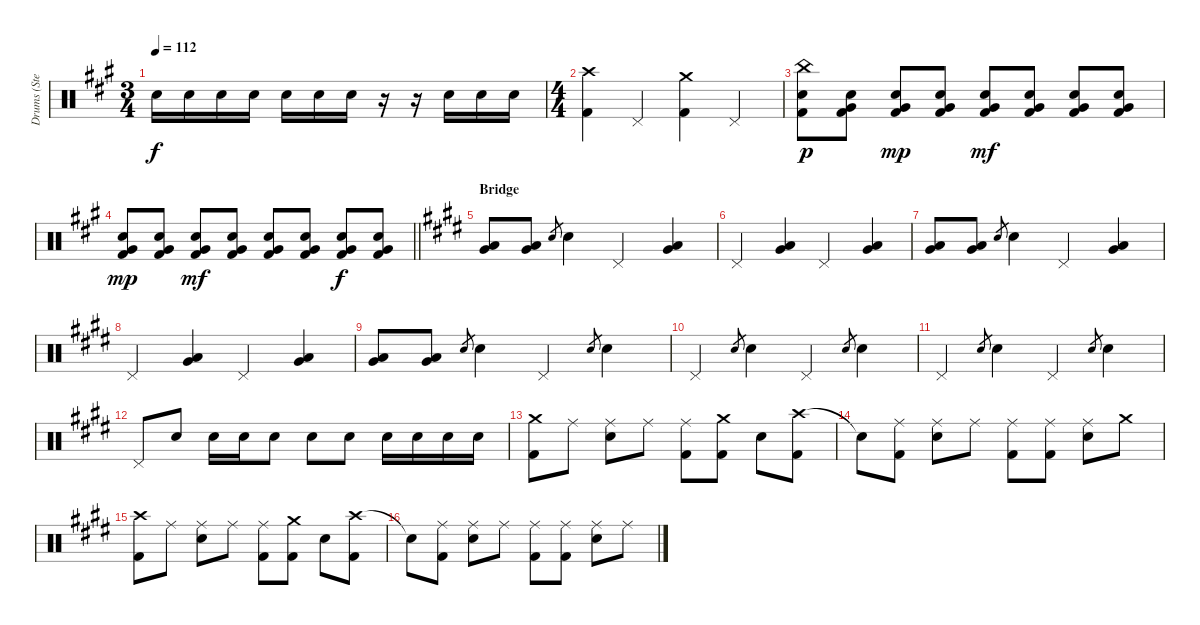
\track ("Drums (Steven)" "Drums (Ste") {instrument percussion}
\staff {score}
\articulation defaults
\ts (3 4)
\tempo 112
\clef neutral
\ks f#minor "Snare (hit) 2".16{dy f} "Snare (hit) 2".16 "Snare (hit) 2".16 "Snare (hit) 2".16 "Snare (hit) 2".16 "Snare (hit) 2".16 "Snare (hit) 2".16
r.16 r.16 "Snare (hit) 2".16 "Snare (hit) 2".16 "Snare (hit) 2".16 |
\ts (4 4)
("Crash high (hit)" "Kick (hit) 2").4 "Pedal Hi-Hat (hit)".4 ("Crash medium (hit)" "Kick (hit) 2").4 "Pedal Hi-Hat (hit)".4 |
("China (hit)" "Snare (hit) 2" "Kick (hit) 2").8{dy p} ("Snare (hit) 2" "Very Low Tom (hit)" "Kick (hit) 2").8 ("Snare (hit) 2" "Very Low Tom (hit)" "Kick (hit) 2").8{dy mp} ("Snare (hit) 2" "Very Low Tom (hit)" "Kick (hit) 2").8 ("Snare (hit) 2" "Very Low Tom (hit)" "Kick (hit) 2").8{dy mf} ("Snare (hit) 2" "Very Low Tom (hit)" "Kick (hit) 2").8 ("Snare (hit) 2" "Very Low Tom (hit)" "Kick (hit) 2").8 ("Snare (hit) 2" "Very Low Tom (hit)" "Kick (hit) 2").8 |
\barLineRight lightlight
("Snare (hit) 2" "Very Low Tom (hit)" "Kick (hit) 2").8{dy mp} ("Snare (hit) 2" "Very Low Tom (hit)" "Kick (hit) 2").8 ("Snare (hit) 2" "Very Low Tom (hit)" "Kick (hit) 2").8{dy mf} ("Snare (hit) 2" "Very Low Tom (hit)" "Kick (hit) 2").8 ("Snare (hit) 2" "Very Low Tom (hit)" "Kick (hit) 2").8 ("Snare (hit) 2" "Very Low Tom (hit)" "Kick (hit) 2").8 ("Snare (hit) 2" "Very Low Tom (hit)" "Kick (hit) 2").8{dy f} ("Snare (hit) 2" "Very Low Tom (hit)" "Kick (hit) 2").8 |
\section ("" "Bridge")
\ks e
("Low Floor Tom (hit)" "Very Low Tom (hit)").8 ("Low Floor Tom (hit)" "Very Low Tom (hit)").8 "Snare (hit) 2".8{gr} "Snare (hit) 2".4 "Pedal Hi-Hat (hit)".4 ("Low Floor Tom (hit)" "Very Low Tom (hit)").4 |
"Pedal Hi-Hat (hit)".4 ("Low Floor Tom (hit)" "Very Low Tom (hit)").4 "Pedal Hi-Hat (hit)".4 ("Low Floor Tom (hit)" "Very Low Tom (hit)").4 |
("Low Floor Tom (hit)" "Very Low Tom (hit)").8 ("Low Floor Tom (hit)" "Very Low Tom (hit)").8 "Snare (hit) 2".8{gr} "Snare (hit) 2".4 "Pedal Hi-Hat (hit)".4 ("Low Floor Tom (hit)" "Very Low Tom (hit)").4 |
"Pedal Hi-Hat (hit)".4 ("Low Floor Tom (hit)" "Very Low Tom (hit)").4 "Pedal Hi-Hat (hit)".4 ("Low Floor Tom (hit)" "Very Low Tom (hit)").4 |
("Low Floor Tom (hit)" "Very Low Tom (hit)").8 ("Low Floor Tom (hit)" "Very Low Tom (hit)").8 "Snare (hit) 2".8{gr} "Snare (hit) 2".4 "Pedal Hi-Hat (hit)".4 "Snare (hit) 2".8{gr} "Snare (hit) 2".4 |
"Pedal Hi-Hat (hit)".4 "Snare (hit) 2".8{gr} "Snare (hit) 2".4 "Pedal Hi-Hat (hit)".4 "Snare (hit) 2".8{gr} "Snare (hit) 2".4 |
"Pedal Hi-Hat (hit)".4 "Snare (hit) 2".8{gr} "Snare (hit) 2".4 "Pedal Hi-Hat (hit)".4 "Snare (hit) 2".8{gr} "Snare (hit) 2".4 |
"Pedal Hi-Hat (hit)".8 "Snare (hit) 2".8 "Snare (hit) 2".16 "Snare (hit) 2".16 "Snare (hit) 2".8 "Snare (hit) 2".8 "Snare (hit) 2".8 "Snare (hit) 2".16 "Snare (hit) 2".16 "Snare (hit) 2".16 "Snare (hit) 2".16 |
("Crash medium (hit)" "Kick (hit) 2").8 "Ride (middle)".8 ("Ride (middle)" "Snare (hit) 2").8 "Ride (middle)".8 ("Ride (middle)" "Kick (hit) 2").8 ("Crash medium (hit)" "Kick (hit) 2").8 "Snare (hit) 2".8 ("Crash high (hit)" "Kick (hit) 2").8 |
"Snare (hit)"{t}.8 ("Ride (middle)" "Kick (hit) 2").8 ("Ride (middle)" "Snare (hit) 2").8 "Ride (middle)".8 ("Ride (middle)" "Kick (hit) 2").8 ("Ride (middle)" "Kick (hit) 2").8 ("Ride (middle)" "Snare (hit) 2").8 "Crash medium (hit)".8 |
("Crash high (hit)" "Kick (hit) 2").8 "Ride (middle)".8 ("Ride (middle)" "Snare (hit) 2").8 "Ride (middle)".8 ("Ride (middle)" "Kick (hit) 2").8 ("Crash medium (hit)" "Kick (hit) 2").8 "Snare (hit) 2".8 ("Crash high (hit)" "Kick (hit) 2").8 |
"Snare (hit)"{t}.8 ("Ride (middle)" "Kick (hit) 2").8 ("Ride (middle)" "Snare (hit) 2").8 "Ride (middle)".8 ("Ride (middle)" "Kick (hit) 2").8 ("Ride (middle)" "Kick (hit) 2").8 ("Ride (middle)" "Snare (hit) 2").8 "Ride (middle)".8
